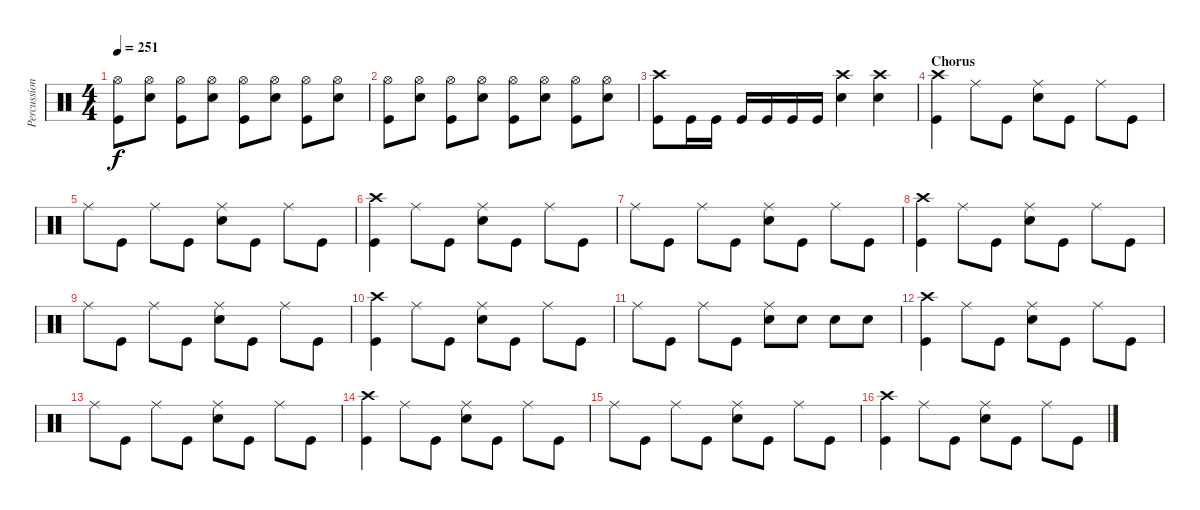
\track ("Percussion" "Percussion") {instrument percussion}
\staff {score}
\articulation defaults
\ts (4 4)
\tempo 251
\clef neutral
\ks c
("Hi-Hat (open)" "Kick (hit)").8{dy f} ("Hi-Hat (open)" "Electric Snare (hit)").8 ("Hi-Hat (open)" "Kick (hit)").8 ("Hi-Hat (open)" "Electric Snare (hit)").8 ("Hi-Hat (open)" "Kick (hit)").8 ("Hi-Hat (open)" "Electric Snare (hit)").8 ("Hi-Hat (open)" "Kick (hit)").8 ("Hi-Hat (open)" "Electric Snare (hit)").8 |
("Hi-Hat (open)" "Kick (hit)").8 ("Hi-Hat (open)" "Electric Snare (hit)").8 ("Hi-Hat (open)" "Kick (hit)").8 ("Hi-Hat (open)" "Electric Snare (hit)").8 ("Hi-Hat (open)" "Kick (hit)").8 ("Hi-Hat (open)" "Electric Snare (hit)").8 ("Hi-Hat (open)" "Kick (hit)").8 ("Hi-Hat (open)" "Electric Snare (hit)").8 |
("Crash high (hit)" "Kick (hit)").8 "Kick (hit)".16 "Kick (hit)".16 "Kick (hit)".16 "Kick (hit)".16 "Kick (hit)".16 "Kick (hit)".16 ("Crash high (hit)" "Electric Snare (hit)").4 ("Crash high (hit)" "Electric Snare (hit)").4 |
\section ("" "Chorus")
("Crash high (hit)" "Kick (hit)").4 "Ride (middle)".8 "Kick (hit)".8 ("Ride (middle)" "Electric Snare (hit)").8 "Kick (hit)".8 "Ride (middle)".8 "Kick (hit)".8 |
"Ride (middle)".8 "Kick (hit)".8 "Ride (middle)".8 "Kick (hit)".8 ("Ride (middle)" "Electric Snare (hit)").8 "Kick (hit)".8 "Ride (middle)".8 "Kick (hit)".8 |
("Crash high (hit)" "Kick (hit)").4 "Ride (middle)".8 "Kick (hit)".8 ("Ride (middle)" "Electric Snare (hit)").8 "Kick (hit)".8 "Ride (middle)".8 "Kick (hit)".8 |
"Ride (middle)".8 "Kick (hit)".8 "Ride (middle)".8 "Kick (hit)".8 ("Ride (middle)" "Electric Snare (hit)").8 "Kick (hit)".8 "Ride (middle)".8 "Kick (hit)".8 |
("Crash high (hit)" "Kick (hit)").4 "Ride (middle)".8 "Kick (hit)".8 ("Ride (middle)" "Electric Snare (hit)").8 "Kick (hit)".8 "Ride (middle)".8 "Kick (hit)".8 |
"Ride (middle)".8 "Kick (hit)".8 "Ride (middle)".8 "Kick (hit)".8 ("Ride (middle)" "Electric Snare (hit)").8 "Kick (hit)".8 "Ride (middle)".8 "Kick (hit)".8 |
("Crash high (hit)" "Kick (hit)").4 "Ride (middle)".8 "Kick (hit)".8 ("Ride (middle)" "Electric Snare (hit)").8 "Kick (hit)".8 "Ride (middle)".8 "Kick (hit)".8 |
"Ride (middle)".8 "Kick (hit)".8 "Ride (middle)".8 "Kick (hit)".8 ("Ride (middle)" "Electric Snare (hit)").8 "Electric Snare (hit)".8 "Electric Snare (hit)".8 "Electric Snare (hit)".8 |
("Crash high (hit)" "Kick (hit)").4 "Ride (middle)".8 "Kick (hit)".8 ("Ride (middle)" "Electric Snare (hit)").8 "Kick (hit)".8 "Ride (middle)".8 "Kick (hit)".8 |
"Ride (middle)".8 "Kick (hit)".8 "Ride (middle)".8 "Kick (hit)".8 ("Ride (middle)" "Electric Snare (hit)").8 "Kick (hit)".8 "Ride (middle)".8 "Kick (hit)".8 |
("Crash high (hit)" "Kick (hit)").4 "Ride (middle)".8 "Kick (hit)".8 ("Ride (middle)" "Electric Snare (hit)").8 "Kick (hit)".8 "Ride (middle)".8 "Kick (hit)".8 |
"Ride (middle)".8 "Kick (hit)".8 "Ride (middle)".8 "Kick (hit)".8 ("Ride (middle)" "Electric Snare (hit)").8 "Kick (hit)".8 "Ride (middle)".8 "Kick (hit)".8 |
("Crash high (hit)" "Kick (hit)").4 "Ride (middle)".8 "Kick (hit)".8 ("Ride (middle)" "Electric Snare (hit)").8 "Kick (hit)".8 "Ride (middle)".8 "Kick (hit)".8
